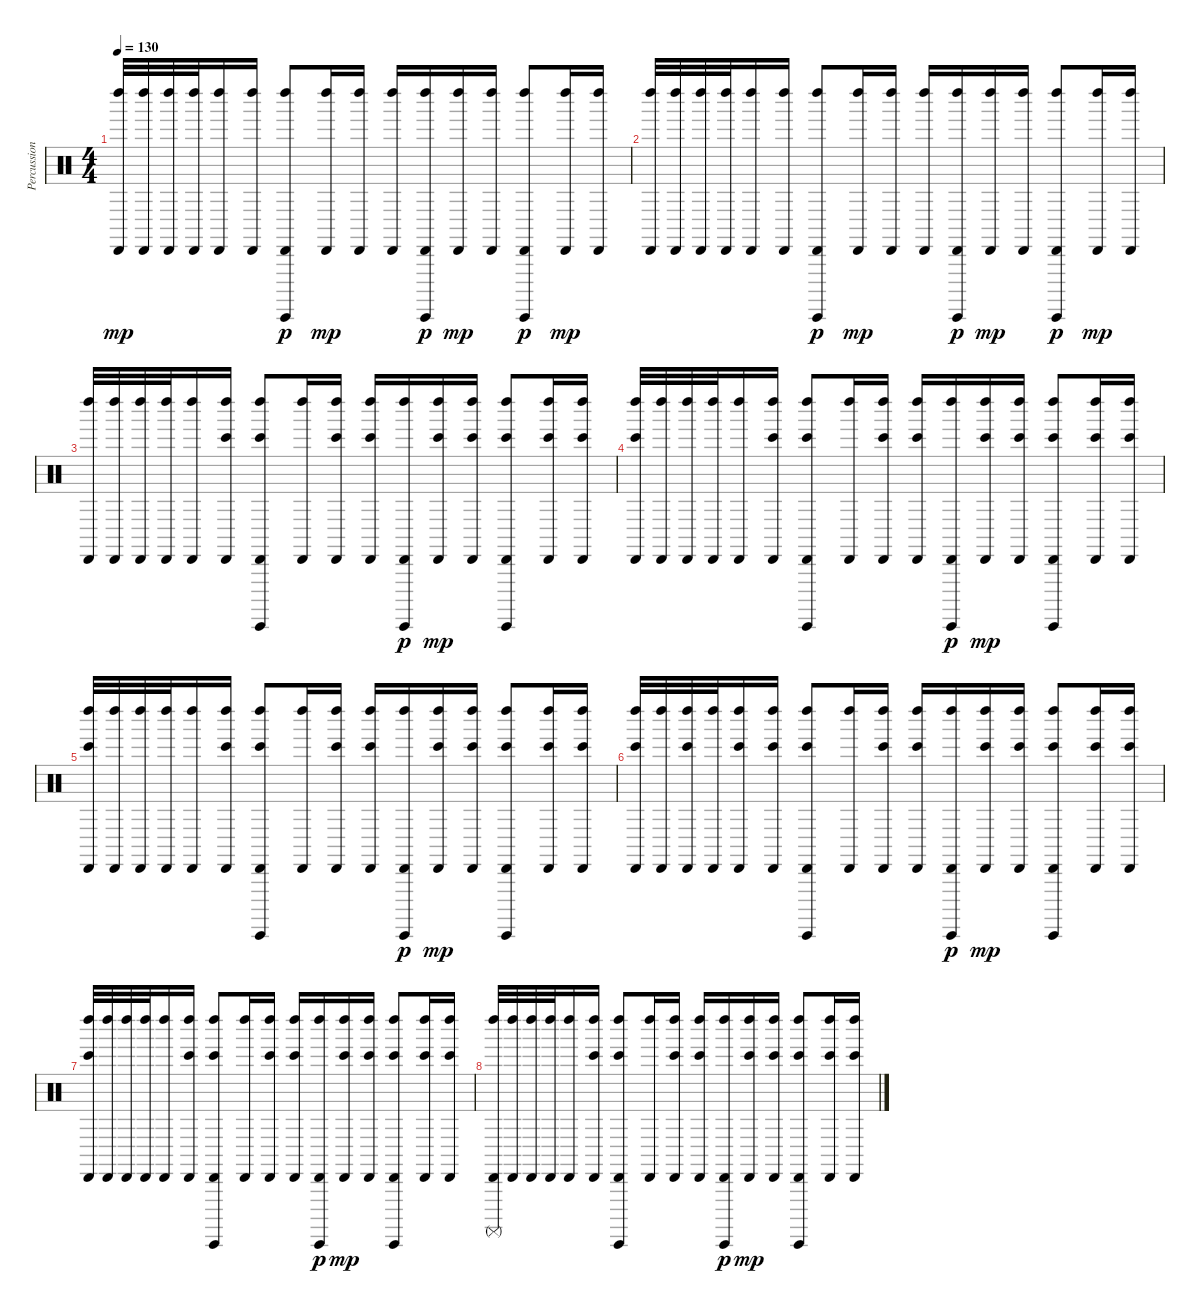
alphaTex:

\track ("Percussion" "Percussion") {instrument percussion}
\staff {score}
\articulation defaults
\ts (4 4)
\tempo 130
\clef neutral
\ks c
("Cabasa (hit)" "Left Maraca (hit)").32{dy mp} ("Cabasa (hit)" "Left Maraca (hit)").32 ("Cabasa (hit)" "Left Maraca (hit)").32 ("Cabasa (hit)" "Left Maraca (hit)").32 ("Cabasa (hit)" "Left Maraca (hit)").16 ("Cabasa (hit)" "Left Maraca (hit)").16 ("Cabasa (hit)" "Left Maraca (hit)" "Guiro (hit)").8{dy p} ("Cabasa (hit)" "Left Maraca (hit)").16{dy mp} ("Cabasa (hit)" "Left Maraca (hit)").16 ("Cabasa (hit)" "Left Maraca (hit)").16 ("Cabasa (hit)" "Left Maraca (hit)" "Guiro (hit)").16{dy p} ("Cabasa (hit)" "Left Maraca (hit)").16{dy mp} ("Cabasa (hit)" "Left Maraca (hit)").16 ("Cabasa (hit)" "Left Maraca (hit)" "Guiro (hit)").8{dy p} ("Cabasa (hit)" "Left Maraca (hit)").16{dy mp} ("Cabasa (hit)" "Left Maraca (hit)").16 |
("Cabasa (hit)" "Left Maraca (hit)").32 ("Cabasa (hit)" "Left Maraca (hit)").32 ("Cabasa (hit)" "Left Maraca (hit)").32 ("Cabasa (hit)" "Left Maraca (hit)").32 ("Cabasa (hit)" "Left Maraca (hit)").16 ("Cabasa (hit)" "Left Maraca (hit)").16 ("Cabasa (hit)" "Left Maraca (hit)" "Guiro (hit)").8{dy p} ("Cabasa (hit)" "Left Maraca (hit)").16{dy mp} ("Cabasa (hit)" "Left Maraca (hit)").16 ("Cabasa (hit)" "Left Maraca (hit)").16 ("Cabasa (hit)" "Left Maraca (hit)" "Guiro (hit)").16{dy p} ("Cabasa (hit)" "Left Maraca (hit)").16{dy mp} ("Cabasa (hit)" "Left Maraca (hit)").16 ("Cabasa (hit)" "Left Maraca (hit)" "Guiro (hit)").8{dy p} ("Cabasa (hit)" "Left Maraca (hit)").16{dy mp} ("Cabasa (hit)" "Left Maraca (hit)").16 |
("Cabasa (hit)" "Left Maraca (hit)").32 ("Cabasa (hit)" "Left Maraca (hit)").32 ("Cabasa (hit)" "Left Maraca (hit)").32 ("Cabasa (hit)" "Left Maraca (hit)").32 ("Cabasa (hit)" "Left Maraca (hit)").16 ("Cabasa (hit)" "Left Maraca (hit)" "Bongo High (hit)").16 ("Cabasa (hit)" "Left Maraca (hit)" "Guiro (hit)" "Bongo High (hit)").8 ("Cabasa (hit)" "Left Maraca (hit)").16 ("Cabasa (hit)" "Left Maraca (hit)" "Bongo High (hit)").16 ("Cabasa (hit)" "Left Maraca (hit)" "Bongo High (hit)").16 ("Cabasa (hit)" "Left Maraca (hit)" "Guiro (hit)").16{dy p} ("Cabasa (hit)" "Left Maraca (hit)" "Bongo High (hit)").16{dy mp} ("Cabasa (hit)" "Left Maraca (hit)" "Bongo High (hit)").16 ("Cabasa (hit)" "Left Maraca (hit)" "Guiro (hit)" "Bongo High (hit)").8 ("Cabasa (hit)" "Left Maraca (hit)" "Bongo High (hit)").16 ("Cabasa (hit)" "Left Maraca (hit)" "Bongo High (hit)").16 |
("Cabasa (hit)" "Left Maraca (hit)" "Bongo High (hit)").32 ("Cabasa (hit)" "Left Maraca (hit)").32 ("Cabasa (hit)" "Left Maraca (hit)").32 ("Cabasa (hit)" "Left Maraca (hit)").32 ("Cabasa (hit)" "Left Maraca (hit)").16 ("Cabasa (hit)" "Left Maraca (hit)" "Bongo High (hit)").16 ("Cabasa (hit)" "Left Maraca (hit)" "Guiro (hit)" "Bongo High (hit)").8 ("Cabasa (hit)" "Left Maraca (hit)").16 ("Cabasa (hit)" "Left Maraca (hit)" "Bongo High (hit)").16 ("Cabasa (hit)" "Left Maraca (hit)" "Bongo High (hit)").16 ("Cabasa (hit)" "Left Maraca (hit)" "Guiro (hit)").16{dy p} ("Cabasa (hit)" "Left Maraca (hit)" "Bongo High (hit)").16{dy mp} ("Cabasa (hit)" "Left Maraca (hit)" "Bongo High (hit)").16 ("Cabasa (hit)" "Left Maraca (hit)" "Guiro (hit)" "Bongo High (hit)").8 ("Cabasa (hit)" "Left Maraca (hit)" "Bongo High (hit)").16 ("Cabasa (hit)" "Left Maraca (hit)" "Bongo High (hit)").16 |
("Cabasa (hit)" "Left Maraca (hit)" "Bongo High (hit)").32 ("Cabasa (hit)" "Left Maraca (hit)").32 ("Cabasa (hit)" "Left Maraca (hit)").32 ("Cabasa (hit)" "Left Maraca (hit)").32 ("Cabasa (hit)" "Left Maraca (hit)").16 ("Cabasa (hit)" "Left Maraca (hit)" "Bongo High (hit)").16 ("Cabasa (hit)" "Left Maraca (hit)" "Guiro (hit)" "Bongo High (hit)").8 ("Cabasa (hit)" "Left Maraca (hit)").16 ("Cabasa (hit)" "Left Maraca (hit)" "Bongo High (hit)").16 ("Cabasa (hit)" "Left Maraca (hit)" "Bongo High (hit)").16 ("Cabasa (hit)" "Left Maraca (hit)" "Guiro (hit)").16{dy p} ("Cabasa (hit)" "Left Maraca (hit)" "Bongo High (hit)").16{dy mp} ("Cabasa (hit)" "Left Maraca (hit)" "Bongo High (hit)").16 ("Cabasa (hit)" "Left Maraca (hit)" "Guiro (hit)" "Bongo High (hit)").8 ("Cabasa (hit)" "Left Maraca (hit)" "Bongo High (hit)").16 ("Cabasa (hit)" "Left Maraca (hit)" "Bongo High (hit)").16 |
("Cabasa (hit)" "Left Maraca (hit)" "Bongo High (hit)").32 ("Cabasa (hit)" "Left Maraca (hit)").32 ("Cabasa (hit)" "Left Maraca (hit)" "Bongo High (hit)").32 ("Cabasa (hit)" "Left Maraca (hit)").32 ("Cabasa (hit)" "Left Maraca (hit)" "Bongo High (hit)").16 ("Cabasa (hit)" "Left Maraca (hit)" "Bongo High (hit)").16 ("Cabasa (hit)" "Left Maraca (hit)" "Guiro (hit)" "Bongo High (hit)").8 ("Cabasa (hit)" "Left Maraca (hit)").16 ("Cabasa (hit)" "Left Maraca (hit)" "Bongo High (hit)").16 ("Cabasa (hit)" "Left Maraca (hit)" "Bongo High (hit)").16 ("Cabasa (hit)" "Left Maraca (hit)" "Guiro (hit)").16{dy p} ("Cabasa (hit)" "Left Maraca (hit)" "Bongo High (hit)").16{dy mp} ("Cabasa (hit)" "Left Maraca (hit)" "Bongo High (hit)").16 ("Cabasa (hit)" "Left Maraca (hit)" "Guiro (hit)" "Bongo High (hit)").8 ("Cabasa (hit)" "Left Maraca (hit)" "Bongo High (hit)").16 ("Cabasa (hit)" "Left Maraca (hit)" "Bongo High (hit)").16 |
("Cabasa (hit)" "Left Maraca (hit)" "Bongo High (hit)").32 ("Cabasa (hit)" "Left Maraca (hit)").32 ("Cabasa (hit)" "Left Maraca (hit)").32 ("Cabasa (hit)" "Left Maraca (hit)").32 ("Cabasa (hit)" "Left Maraca (hit)").16 ("Cabasa (hit)" "Left Maraca (hit)" "Bongo High (hit)").16 ("Cabasa (hit)" "Left Maraca (hit)" "Guiro (hit)" "Bongo High (hit)").8 ("Cabasa (hit)" "Left Maraca (hit)").16 ("Cabasa (hit)" "Left Maraca (hit)" "Bongo High (hit)").16 ("Cabasa (hit)" "Left Maraca (hit)" "Bongo High (hit)").16 ("Cabasa (hit)" "Left Maraca (hit)" "Guiro (hit)").16{dy p} ("Cabasa (hit)" "Left Maraca (hit)" "Bongo High (hit)").16{dy mp} ("Cabasa (hit)" "Left Maraca (hit)" "Bongo High (hit)").16 ("Cabasa (hit)" "Left Maraca (hit)" "Guiro (hit)" "Bongo High (hit)").8 ("Cabasa (hit)" "Left Maraca (hit)" "Bongo High (hit)").16 ("Cabasa (hit)" "Left Maraca (hit)" "Bongo High (hit)").16 |
("Cabasa (hit)" "Left Maraca (hit)" "Surdo (mute)").32 ("Cabasa (hit)" "Left Maraca (hit)").32 ("Cabasa (hit)" "Left Maraca (hit)").32 ("Cabasa (hit)" "Left Maraca (hit)").32 ("Cabasa (hit)" "Left Maraca (hit)").16 ("Cabasa (hit)" "Left Maraca (hit)" "Bongo High (hit)").16 ("Cabasa (hit)" "Left Maraca (hit)" "Guiro (hit)" "Bongo High (hit)").8 ("Cabasa (hit)" "Left Maraca (hit)").16 ("Cabasa (hit)" "Left Maraca (hit)" "Bongo High (hit)").16 ("Cabasa (hit)" "Left Maraca (hit)" "Bongo High (hit)").16 ("Cabasa (hit)" "Left Maraca (hit)" "Guiro (hit)").16{dy p} ("Cabasa (hit)" "Left Maraca (hit)" "Bongo High (hit)").16{dy mp} ("Cabasa (hit)" "Left Maraca (hit)" "Bongo High (hit)").16 ("Cabasa (hit)" "Left Maraca (hit)" "Guiro (hit)" "Bongo High (hit)").8 ("Cabasa (hit)" "Left Maraca (hit)" "Bongo High (hit)").16 ("Cabasa (hit)" "Left Maraca (hit)" "Bongo High (hit)").16
